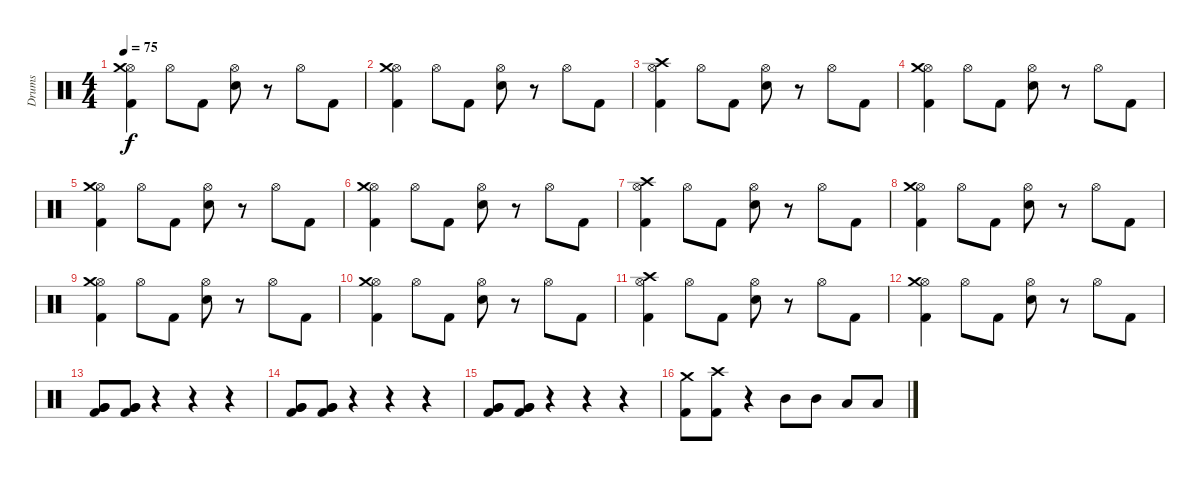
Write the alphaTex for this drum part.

\track ("Drums" "Drums") {instrument percussion}
\staff {score}
\articulation defaults
\ts (4 4)
\tempo 75
\clef neutral
\ks c
("Hi-Hat (open)" "Crash medium (hit)" "Kick (hit) 2").4{dy f} "Hi-Hat (open)".8 "Kick (hit) 2".8 ("Hi-Hat (open)" "Snare (hit) 2").8 r.8 "Hi-Hat (open)".8 "Kick (hit) 2".8 |
("Hi-Hat (open)" "Crash medium (hit)" "Kick (hit) 2").4 "Hi-Hat (open)".8 "Kick (hit) 2".8 ("Hi-Hat (open)" "Snare (hit) 2").8 r.8 "Hi-Hat (open)".8 "Kick (hit) 2".8 |
("Hi-Hat (open)" "Crash high (hit)" "Kick (hit) 2").4 "Hi-Hat (open)".8 "Kick (hit) 2".8 ("Hi-Hat (open)" "Snare (hit) 2").8 r.8 "Hi-Hat (open)".8 "Kick (hit) 2".8 |
("Hi-Hat (open)" "Crash medium (hit)" "Kick (hit) 2").4 "Hi-Hat (open)".8 "Kick (hit) 2".8 ("Hi-Hat (open)" "Snare (hit) 2").8 r.8 "Hi-Hat (open)".8 "Kick (hit) 2".8 |
("Hi-Hat (open)" "Crash medium (hit)" "Kick (hit) 2").4 "Hi-Hat (open)".8 "Kick (hit) 2".8 ("Hi-Hat (open)" "Snare (hit) 2").8 r.8 "Hi-Hat (open)".8 "Kick (hit) 2".8 |
("Hi-Hat (open)" "Crash medium (hit)" "Kick (hit) 2").4 "Hi-Hat (open)".8 "Kick (hit) 2".8 ("Hi-Hat (open)" "Snare (hit) 2").8 r.8 "Hi-Hat (open)".8 "Kick (hit) 2".8 |
("Hi-Hat (open)" "Crash high (hit)" "Kick (hit) 2").4 "Hi-Hat (open)".8 "Kick (hit) 2".8 ("Hi-Hat (open)" "Snare (hit) 2").8 r.8 "Hi-Hat (open)".8 "Kick (hit) 2".8 |
("Hi-Hat (open)" "Crash medium (hit)" "Kick (hit) 2").4 "Hi-Hat (open)".8 "Kick (hit) 2".8 ("Hi-Hat (open)" "Snare (hit) 2").8 r.8 "Hi-Hat (open)".8 "Kick (hit) 2".8 |
("Hi-Hat (open)" "Crash medium (hit)" "Kick (hit) 2").4 "Hi-Hat (open)".8 "Kick (hit) 2".8 ("Hi-Hat (open)" "Snare (hit) 2").8 r.8 "Hi-Hat (open)".8 "Kick (hit) 2".8 |
("Hi-Hat (open)" "Crash medium (hit)" "Kick (hit) 2").4 "Hi-Hat (open)".8 "Kick (hit) 2".8 ("Hi-Hat (open)" "Snare (hit) 2").8 r.8 "Hi-Hat (open)".8 "Kick (hit) 2".8 |
("Hi-Hat (open)" "Crash high (hit)" "Kick (hit) 2").4 "Hi-Hat (open)".8 "Kick (hit) 2".8 ("Hi-Hat (open)" "Snare (hit) 2").8 r.8 "Hi-Hat (open)".8 "Kick (hit) 2".8 |
("Hi-Hat (open)" "Crash medium (hit)" "Kick (hit) 2").4 "Hi-Hat (open)".8 "Kick (hit) 2".8 ("Hi-Hat (open)" "Snare (hit) 2").8 r.8 "Hi-Hat (open)".8 "Kick (hit) 2".8 |
("Very Low Tom (hit)" "Very Low Tom (hit)" "Kick (hit) 2").8 ("Very Low Tom (hit)" "Very Low Tom (hit)" "Kick (hit) 2").8 r.4 r.4 r.4 |
("Very Low Tom (hit)" "Very Low Tom (hit)" "Kick (hit) 2").8 ("Very Low Tom (hit)" "Very Low Tom (hit)" "Kick (hit) 2").8 r.4 r.4 r.4 |
("Very Low Tom (hit)" "Very Low Tom (hit)" "Kick (hit) 2").8 ("Very Low Tom (hit)" "Very Low Tom (hit)" "Kick (hit) 2").8 r.4 r.4 r.4 |
("Crash medium (hit)" "Kick (hit) 2").8 ("Crash high (hit)" "Kick (hit) 2").8 r.4 "Mid Tom (hit)".8 "Mid Tom (hit)".8 "Low Tom (hit)".8 "Low Tom (hit)".8
